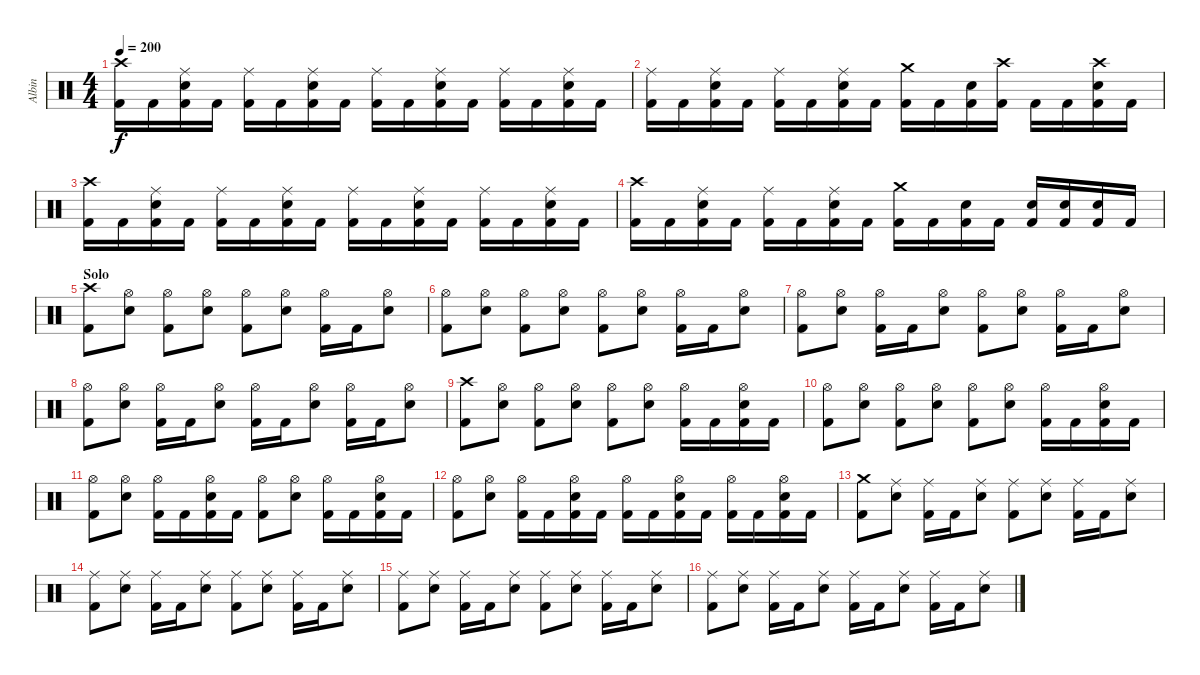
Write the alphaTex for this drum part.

\track ("Albin" "Albin") {instrument percussion}
\staff {score}
\articulation defaults
\ts (4 4)
\tempo 200
\clef neutral
\ks c
("Crash high (hit)" "Kick (hit) 2").16{dy f} "Kick (hit) 2".16 ("Ride (middle)" "Snare (hit) 2" "Kick (hit) 2").16 "Kick (hit) 2".16 ("Ride (middle)" "Kick (hit) 2").16 "Kick (hit) 2".16 ("Ride (middle)" "Snare (hit) 2" "Kick (hit) 2").16 "Kick (hit) 2".16 ("Ride (middle)" "Kick (hit) 2").16 "Kick (hit) 2".16 ("Ride (middle)" "Snare (hit) 2" "Kick (hit) 2").16 "Kick (hit) 2".16 ("Ride (middle)" "Kick (hit) 2").16 "Kick (hit) 2".16 ("Ride (middle)" "Snare (hit) 2" "Kick (hit) 2").16 "Kick (hit) 2".16 |
("Ride (middle)" "Kick (hit) 2").16 "Kick (hit) 2".16 ("Ride (middle)" "Snare (hit) 2" "Kick (hit) 2").16 "Kick (hit) 2".16 ("Ride (middle)" "Kick (hit) 2").16 "Kick (hit) 2".16 ("Ride (middle)" "Snare (hit) 2" "Kick (hit) 2").16 "Kick (hit) 2".16 ("Crash medium (hit)" "Kick (hit) 2").16 "Kick (hit) 2".16 ("Snare (hit) 2" "Kick (hit) 2").16 ("Crash high (hit)" "Kick (hit) 2").16 "Kick (hit) 2".16 "Kick (hit) 2".16 ("Crash high (hit)" "Snare (hit) 2" "Kick (hit) 2").16 "Kick (hit) 2".16 |
("Crash high (hit)" "Kick (hit) 2").16 "Kick (hit) 2".16 ("Ride (middle)" "Snare (hit) 2" "Kick (hit) 2").16 "Kick (hit) 2".16 ("Ride (middle)" "Kick (hit) 2").16 "Kick (hit) 2".16 ("Ride (middle)" "Snare (hit) 2" "Kick (hit) 2").16 "Kick (hit) 2".16 ("Ride (middle)" "Kick (hit) 2").16 "Kick (hit) 2".16 ("Ride (middle)" "Snare (hit) 2" "Kick (hit) 2").16 "Kick (hit) 2".16 ("Ride (middle)" "Kick (hit) 2").16 "Kick (hit) 2".16 ("Ride (middle)" "Snare (hit) 2" "Kick (hit) 2").16 "Kick (hit) 2".16 |
("Crash high (hit)" "Kick (hit) 2").16 "Kick (hit) 2".16 ("Ride (middle)" "Snare (hit) 2" "Kick (hit) 2").16 "Kick (hit) 2".16 ("Ride (middle)" "Kick (hit) 2").16 "Kick (hit) 2".16 ("Ride (middle)" "Snare (hit) 2" "Kick (hit) 2").16 "Kick (hit) 2".16 ("Crash medium (hit)" "Kick (hit) 2").16 "Kick (hit) 2".16 ("Snare (hit) 2" "Kick (hit) 2").16 "Kick (hit) 2".16 ("Snare (hit) 2" "Kick (hit) 2").16 ("Snare (hit) 2" "Kick (hit) 2").16 ("Snare (hit) 2" "Kick (hit) 2").16 "Kick (hit) 2".16 |
\section ("" "Solo")
("Crash high (hit)" "Kick (hit) 2").8 ("Hi-Hat (open)" "Snare (hit) 2").8 ("Hi-Hat (open)" "Kick (hit) 2").8 ("Hi-Hat (open)" "Snare (hit) 2").8 ("Hi-Hat (open)" "Kick (hit) 2").8 ("Hi-Hat (open)" "Snare (hit) 2").8 ("Hi-Hat (open)" "Kick (hit) 2").16 "Kick (hit) 2".16 ("Hi-Hat (open)" "Snare (hit) 2").8 |
("Hi-Hat (open)" "Kick (hit) 2").8 ("Hi-Hat (open)" "Snare (hit) 2").8 ("Hi-Hat (open)" "Kick (hit) 2").8 ("Hi-Hat (open)" "Snare (hit) 2").8 ("Hi-Hat (open)" "Kick (hit) 2").8 ("Hi-Hat (open)" "Snare (hit) 2").8 ("Hi-Hat (open)" "Kick (hit) 2").16 "Kick (hit) 2".16 ("Hi-Hat (open)" "Snare (hit) 2").8 |
("Hi-Hat (open)" "Kick (hit) 2").8 ("Hi-Hat (open)" "Snare (hit) 2").8 ("Hi-Hat (open)" "Kick (hit) 2").16 "Kick (hit) 2".16 ("Hi-Hat (open)" "Snare (hit) 2").8 ("Hi-Hat (open)" "Kick (hit) 2").8 ("Hi-Hat (open)" "Snare (hit) 2").8 ("Hi-Hat (open)" "Kick (hit) 2").16 "Kick (hit) 2".16 ("Hi-Hat (open)" "Snare (hit) 2").8 |
("Hi-Hat (open)" "Kick (hit) 2").8 ("Hi-Hat (open)" "Snare (hit) 2").8 ("Hi-Hat (open)" "Kick (hit) 2").16 "Kick (hit) 2".16 ("Hi-Hat (open)" "Snare (hit) 2").8 ("Hi-Hat (open)" "Kick (hit) 2").16 "Kick (hit) 2".16 ("Hi-Hat (open)" "Snare (hit) 2").8 ("Hi-Hat (open)" "Kick (hit) 2").16 "Kick (hit) 2".16 ("Hi-Hat (open)" "Snare (hit) 2").8 |
("Crash high (hit)" "Kick (hit) 2").8 ("Hi-Hat (open)" "Snare (hit) 2").8 ("Hi-Hat (open)" "Kick (hit) 2").8 ("Hi-Hat (open)" "Snare (hit) 2").8 ("Hi-Hat (open)" "Kick (hit) 2").8 ("Hi-Hat (open)" "Snare (hit) 2").8 ("Hi-Hat (open)" "Kick (hit) 2").16 "Kick (hit) 2".16 ("Hi-Hat (open)" "Snare (hit) 2" "Kick (hit) 2").16 "Kick (hit) 2".16 |
("Hi-Hat (open)" "Kick (hit) 2").8 ("Hi-Hat (open)" "Snare (hit) 2").8 ("Hi-Hat (open)" "Kick (hit) 2").8 ("Hi-Hat (open)" "Snare (hit) 2").8 ("Hi-Hat (open)" "Kick (hit) 2").8 ("Hi-Hat (open)" "Snare (hit) 2").8 ("Hi-Hat (open)" "Kick (hit) 2").16 "Kick (hit) 2".16 ("Hi-Hat (open)" "Snare (hit) 2" "Kick (hit) 2").16 "Kick (hit) 2".16 |
("Hi-Hat (open)" "Kick (hit) 2").8 ("Hi-Hat (open)" "Snare (hit) 2").8 ("Hi-Hat (open)" "Kick (hit) 2").16 "Kick (hit) 2".16 ("Hi-Hat (open)" "Snare (hit) 2" "Kick (hit) 2").16 "Kick (hit) 2".16 ("Hi-Hat (open)" "Kick (hit) 2").8 ("Hi-Hat (open)" "Snare (hit) 2").8 ("Hi-Hat (open)" "Kick (hit) 2").16 "Kick (hit) 2".16 ("Hi-Hat (open)" "Snare (hit) 2" "Kick (hit) 2").16 "Kick (hit) 2".16 |
("Hi-Hat (open)" "Kick (hit) 2").8 ("Hi-Hat (open)" "Snare (hit) 2").8 ("Hi-Hat (open)" "Kick (hit) 2").16 "Kick (hit) 2".16 ("Hi-Hat (open)" "Snare (hit) 2" "Kick (hit) 2").16 "Kick (hit) 2".16 ("Hi-Hat (open)" "Kick (hit) 2").16 "Kick (hit) 2".16 ("Hi-Hat (open)" "Snare (hit) 2" "Kick (hit) 2").16 "Kick (hit) 2".16 ("Hi-Hat (open)" "Kick (hit) 2").16 "Kick (hit) 2".16 ("Hi-Hat (open)" "Snare (hit) 2" "Kick (hit) 2").16 "Kick (hit) 2".16 |
("Crash medium (hit)" "Kick (hit) 2").8 ("Ride (middle)" "Snare (hit) 2").8 ("Ride (middle)" "Kick (hit) 2").16 "Kick (hit) 2".16 ("Ride (middle)" "Snare (hit) 2").8 ("Ride (middle)" "Kick (hit) 2").8 ("Ride (middle)" "Snare (hit) 2").8 ("Ride (middle)" "Kick (hit) 2").16 "Kick (hit) 2".16 ("Ride (middle)" "Snare (hit) 2").8 |
("Ride (middle)" "Kick (hit) 2").8 ("Ride (middle)" "Snare (hit) 2").8 ("Ride (middle)" "Kick (hit) 2").16 "Kick (hit) 2".16 ("Ride (middle)" "Snare (hit) 2").8 ("Ride (middle)" "Kick (hit) 2").8 ("Ride (middle)" "Snare (hit) 2").8 ("Ride (middle)" "Kick (hit) 2").16 "Kick (hit) 2".16 ("Ride (middle)" "Snare (hit) 2").8 |
("Ride (middle)" "Kick (hit) 2").8 ("Ride (middle)" "Snare (hit) 2").8 ("Ride (middle)" "Kick (hit) 2").16 "Kick (hit) 2".16 ("Ride (middle)" "Snare (hit) 2").8 ("Ride (middle)" "Kick (hit) 2").8 ("Ride (middle)" "Snare (hit) 2").8 ("Ride (middle)" "Kick (hit) 2").16 "Kick (hit) 2".16 ("Ride (middle)" "Snare (hit) 2").8 |
("Ride (middle)" "Kick (hit) 2").8 ("Ride (middle)" "Snare (hit) 2").8 ("Ride (middle)" "Kick (hit) 2").16 "Kick (hit) 2".16 ("Ride (middle)" "Snare (hit) 2").8 ("Ride (middle)" "Kick (hit) 2").16 "Kick (hit) 2".16 ("Ride (middle)" "Snare (hit) 2").8 ("Ride (middle)" "Kick (hit) 2").16 "Kick (hit) 2".16 ("Ride (middle)" "Snare (hit) 2").8
